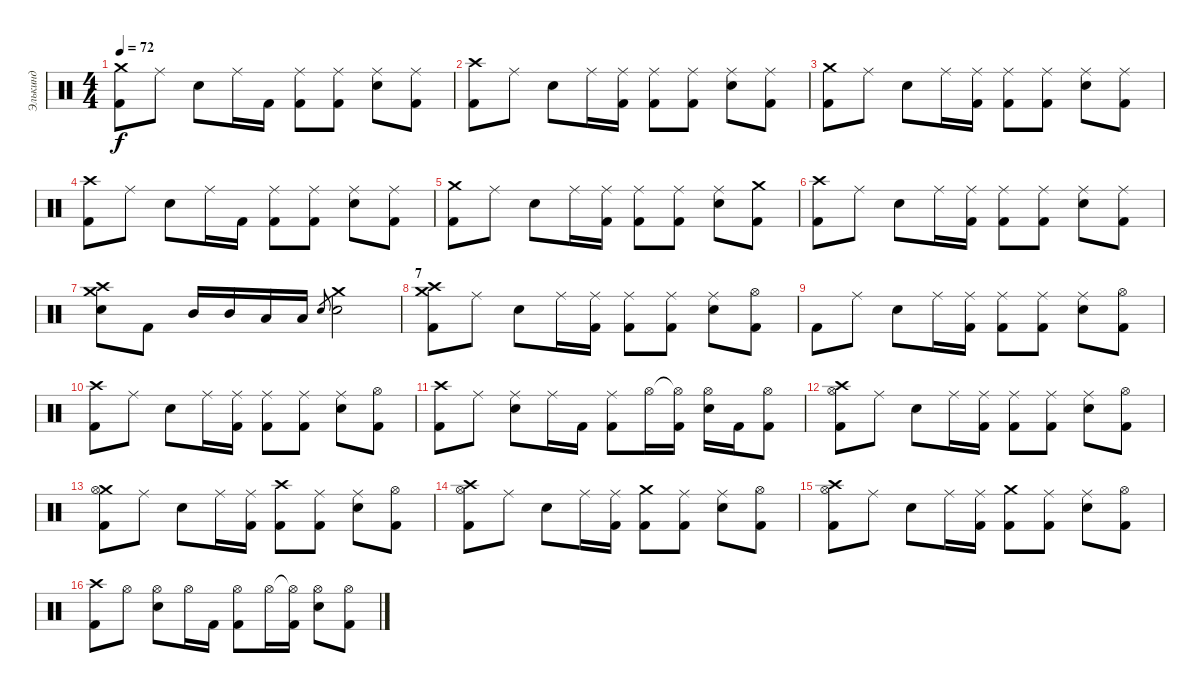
\track ("Элькинд" "Элькинд") {instrument percussion}
\staff {score}
\articulation defaults
\ts (4 4)
\tempo 72
\clef neutral
\ks c
("Crash medium (hit)" "Kick (hit) 2").8{dy f} "Ride (middle)".8 "Snare (hit) 2".8 "Ride (middle)".16 "Kick (hit) 2".16 ("Ride (middle)" "Kick (hit) 2").8 ("Ride (middle)" "Kick (hit) 2").8 ("Ride (middle)" "Snare (hit) 2").8 ("Ride (middle)" "Kick (hit) 2").8 |
("Crash high (hit)" "Kick (hit) 2").8 "Ride (middle)".8 "Snare (hit) 2".8 "Ride (middle)".16 ("Ride (middle)" "Kick (hit) 2").16 ("Ride (middle)" "Kick (hit) 2").8 ("Ride (middle)" "Kick (hit) 2").8 ("Ride (middle)" "Snare (hit) 2").8 ("Ride (middle)" "Kick (hit) 2").8 |
("Crash medium (hit)" "Kick (hit) 2").8 "Ride (middle)".8 "Snare (hit) 2".8 "Ride (middle)".16 ("Ride (middle)" "Kick (hit) 2").16 ("Ride (middle)" "Kick (hit) 2").8 ("Ride (middle)" "Kick (hit) 2").8 ("Ride (middle)" "Snare (hit) 2").8 ("Ride (middle)" "Kick (hit) 2").8 |
("Crash high (hit)" "Kick (hit) 2").8 "Ride (middle)".8 "Snare (hit) 2".8 "Ride (middle)".16 "Kick (hit) 2".16 ("Ride (middle)" "Kick (hit) 2").8 ("Ride (middle)" "Kick (hit) 2").8 ("Ride (middle)" "Snare (hit) 2").8 ("Ride (middle)" "Kick (hit) 2").8 |
("Crash medium (hit)" "Kick (hit) 2").8 "Ride (middle)".8 "Snare (hit) 2".8 "Ride (middle)".16 ("Ride (middle)" "Kick (hit) 2").16 ("Ride (middle)" "Kick (hit) 2").8 ("Ride (middle)" "Kick (hit) 2").8 ("Ride (middle)" "Snare (hit) 2").8 ("Crash medium (hit)" "Kick (hit) 2").8 |
("Crash high (hit)" "Kick (hit) 2").8 "Ride (middle)".8 "Snare (hit) 2".8 "Ride (middle)".16 ("Ride (middle)" "Kick (hit) 2").16 ("Ride (middle)" "Kick (hit) 2").8 ("Ride (middle)" "Kick (hit) 2").8 ("Ride (middle)" "Snare (hit) 2").8 ("Ride (middle)" "Kick (hit) 2").8 |
("Crash high (hit)" "Crash medium (hit)" "Snare (hit) 2").8 "Kick (hit) 2".8 "Mid Tom (hit)".16 "Mid Tom (hit)".16 "Low Tom (hit)".16 "Low Tom (hit)".16 "Snare (hit) 2".8{gr} ("Crash medium (hit)" "Snare (hit) 2").2 |
\section ("" "7")
("Crash high (hit)" "Crash medium (hit)" "Kick (hit) 2").8 "Ride (middle)".8 "Snare (hit) 2".8 "Ride (middle)".16 ("Ride (middle)" "Kick (hit) 2").16 ("Ride (middle)" "Kick (hit) 2").8 ("Ride (middle)" "Kick (hit) 2").8 ("Ride (middle)" "Snare (hit) 2").8 ("Hi-Hat (open)" "Kick (hit) 2").8 |
"Kick (hit) 2".8 "Ride (middle)".8 "Snare (hit) 2".8 "Ride (middle)".16 ("Ride (middle)" "Kick (hit) 2").16 ("Ride (middle)" "Kick (hit) 2").8 ("Ride (middle)" "Kick (hit) 2").8 ("Ride (middle)" "Snare (hit) 2").8 ("Hi-Hat (open)" "Kick (hit) 2").8 |
("Crash high (hit)" "Kick (hit) 2").8 "Ride (middle)".8 "Snare (hit) 2".8 "Ride (middle)".16 ("Ride (middle)" "Kick (hit) 2").16 ("Ride (middle)" "Kick (hit) 2").8 ("Ride (middle)" "Kick (hit) 2").8 ("Ride (middle)" "Snare (hit) 2").8 ("Hi-Hat (open)" "Kick (hit) 2").8 |
("Crash high (hit)" "Kick (hit) 2").8 "Ride (middle)".8 ("Ride (middle)" "Snare (hit) 2").8 "Ride (middle)".16 "Kick (hit) 2".16 ("Ride (middle)" "Kick (hit) 2").8 "Hi-Hat (open)".16 ("Hi-Hat (open)"{t} "Kick (hit) 2").16 ("Hi-Hat (open)" "Snare (hit) 2").16 "Kick (hit) 2".16 ("Hi-Hat (open)" "Kick (hit) 2").8 |
("Crash high (hit)" "Hi-Hat (open)" "Kick (hit) 2").8 "Ride (middle)".8 "Snare (hit) 2".8 "Ride (middle)".16 ("Ride (middle)" "Kick (hit) 2").16 ("Ride (middle)" "Kick (hit) 2").8 ("Ride (middle)" "Kick (hit) 2").8 ("Ride (middle)" "Snare (hit) 2").8 ("Hi-Hat (open)" "Kick (hit) 2").8 |
("Crash medium (hit)" "Hi-Hat (open)" "Kick (hit) 2").8 "Ride (middle)".8 "Snare (hit) 2".8 "Ride (middle)".16 ("Ride (middle)" "Kick (hit) 2").16 ("Crash high (hit)" "Kick (hit) 2").8 ("Ride (middle)" "Kick (hit) 2").8 ("Ride (middle)" "Snare (hit) 2").8 ("Hi-Hat (open)" "Kick (hit) 2").8 |
("Crash high (hit)" "Hi-Hat (open)" "Kick (hit) 2").8 "Ride (middle)".8 "Snare (hit) 2".8 "Ride (middle)".16 ("Ride (middle)" "Kick (hit) 2").16 ("Crash medium (hit)" "Kick (hit) 2").8 ("Ride (middle)" "Kick (hit) 2").8 ("Ride (middle)" "Snare (hit) 2").8 ("Hi-Hat (open)" "Kick (hit) 2").8 |
("Crash high (hit)" "Hi-Hat (open)" "Kick (hit) 2").8 "Ride (middle)".8 "Snare (hit) 2".8 "Ride (middle)".16 ("Ride (middle)" "Kick (hit) 2").16 ("Crash medium (hit)" "Kick (hit) 2").8 ("Ride (middle)" "Kick (hit) 2").8 ("Ride (middle)" "Snare (hit) 2").8 ("Hi-Hat (open)" "Kick (hit) 2").8 |
("Crash high (hit)" "Kick (hit) 2").8 "Hi-Hat (open)".8 ("Hi-Hat (open)" "Snare (hit) 2").8 "Hi-Hat (open)".16 "Kick (hit) 2".16 ("Hi-Hat (open)" "Kick (hit) 2").8 "Hi-Hat (open)".16 ("Hi-Hat (open)"{t} "Kick (hit) 2").16 ("Hi-Hat (open)" "Snare (hit) 2").8 ("Hi-Hat (open)" "Kick (hit) 2").8
